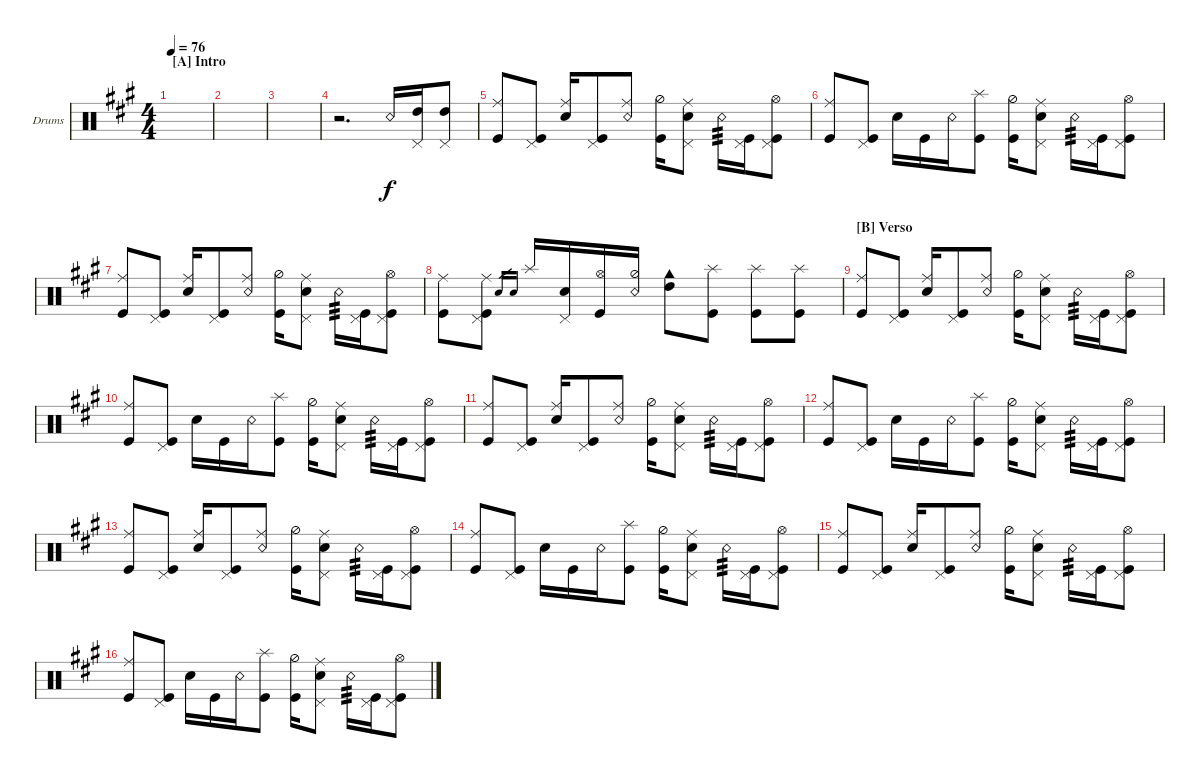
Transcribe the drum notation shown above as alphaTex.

\defaultSystemsLayout 4
\bracketExtendMode groupsimilarinstruments
\firstSystemTrackNameOrientation horizontal
\otherSystemsTrackNameOrientation horizontal
\track ("Drums" "Drums") {instrument percussion}
\staff {score}
\articulation defaults
\ts (4 4)
\section ("A" "Intro")
\tempo 76
\clef neutral
\ks a
|
|
|
r.2{d} "Snare (rim shot)".16 ("High Tom (hit)" "Pedal Hi-Hat (hit)").16 ("High Tom (hit)" "Pedal Hi-Hat (hit)").8 |
("Kick (hit)" "Ride (middle)").8 ("Kick (hit)" "Pedal Hi-Hat (hit)").8 ("Snare (hit) 2" "Ride (middle)").16 ("Kick (hit)" "Pedal Hi-Hat (hit)").8 ("Snare (rim shot)" "Ride (middle)").8 ("Kick (hit)" "Hi-Hat (half)").16 ("Snare (hit) 2" "Ride (middle)" "Pedal Hi-Hat (hit)").8 "Snare (rim shot)".16{tp 3} ("Kick (hit)" "Pedal Hi-Hat (hit)").16 ("Kick (hit)" "Pedal Hi-Hat (hit)" "Hi-Hat (open)").8 |
("Kick (hit)" "Ride (middle)").8 ("Kick (hit)" "Pedal Hi-Hat (hit)").8 "Snare (hit) 2".16 "Kick (hit)".16 "Snare (rim shot)".16 ("Splash (hit)" "Kick (hit)").8 ("Kick (hit)" "Hi-Hat (half)").16 ("Snare (hit) 2" "Ride (middle)" "Pedal Hi-Hat (hit)").8 "Snare (rim shot)".16{tp 3} ("Kick (hit)" "Pedal Hi-Hat (hit)").16 ("Kick (hit)" "Pedal Hi-Hat (hit)" "Hi-Hat (open)").8 |
("Kick (hit)" "Ride (middle)").8 ("Kick (hit)" "Pedal Hi-Hat (hit)").8 ("Snare (hit) 2" "Ride (middle)").16 ("Kick (hit)" "Pedal Hi-Hat (hit)").8 ("Snare (rim shot)" "Ride (middle)").8 ("Kick (hit)" "Hi-Hat (half)").16 ("Snare (hit) 2" "Ride (middle)" "Pedal Hi-Hat (hit)").8 "Snare (rim shot)".16{tp 3} ("Kick (hit)" "Pedal Hi-Hat (hit)").16 ("Kick (hit)" "Pedal Hi-Hat (hit)" "Hi-Hat (open)").8 |
("Kick (hit)" "Ride (middle)").8 ("Kick (hit)" "Pedal Hi-Hat (hit)" "Ride (middle)").8 "Snare (hit) 2".16{gr} "Snare (hit) 2".16{gr} "Splash (hit)".16{beam invert} ("Snare (hit) 2" "Pedal Hi-Hat (hit)").16 ("Kick (hit)" "Hi-Hat (open)").16 ("Snare (rim shot)" "Hi-Hat (half)").16 ("High Tom (hit)" "Cowbell high (hit)").8 ("Kick (hit)" "Splash (hit)").8 ("Splash (hit)" "Kick (hit)").8 ("Kick (hit)" "Splash (hit)").8 |
\section ("B" "Verso")
("Kick (hit)" "Ride (middle)").8 ("Kick (hit)" "Pedal Hi-Hat (hit)").8 ("Snare (hit) 2" "Ride (middle)").16 ("Kick (hit)" "Pedal Hi-Hat (hit)").8 ("Snare (rim shot)" "Ride (middle)").8 ("Kick (hit)" "Hi-Hat (half)").16 ("Snare (hit) 2" "Ride (middle)" "Pedal Hi-Hat (hit)").8 "Snare (rim shot)".16{tp 3} ("Kick (hit)" "Pedal Hi-Hat (hit)").16 ("Kick (hit)" "Pedal Hi-Hat (hit)" "Hi-Hat (open)").8 |
("Kick (hit)" "Ride (middle)").8 ("Kick (hit)" "Pedal Hi-Hat (hit)").8 "Snare (hit) 2".16 "Kick (hit)".16 "Snare (rim shot)".16 ("Splash (hit)" "Kick (hit)").8 ("Kick (hit)" "Hi-Hat (half)").16 ("Snare (hit) 2" "Ride (middle)" "Pedal Hi-Hat (hit)").8 "Snare (rim shot)".16{tp 3} ("Kick (hit)" "Pedal Hi-Hat (hit)").16 ("Kick (hit)" "Pedal Hi-Hat (hit)" "Hi-Hat (open)").8 |
("Kick (hit)" "Ride (middle)").8 ("Kick (hit)" "Pedal Hi-Hat (hit)").8 ("Snare (hit) 2" "Ride (middle)").16 ("Kick (hit)" "Pedal Hi-Hat (hit)").8 ("Snare (rim shot)" "Ride (middle)").8 ("Kick (hit)" "Hi-Hat (half)").16 ("Snare (hit) 2" "Ride (middle)" "Pedal Hi-Hat (hit)").8 "Snare (rim shot)".16{tp 3} ("Kick (hit)" "Pedal Hi-Hat (hit)").16 ("Kick (hit)" "Pedal Hi-Hat (hit)" "Hi-Hat (open)").8 |
("Kick (hit)" "Ride (middle)").8 ("Kick (hit)" "Pedal Hi-Hat (hit)").8 "Snare (hit) 2".16 "Kick (hit)".16 "Snare (rim shot)".16 ("Splash (hit)" "Kick (hit)").8 ("Kick (hit)" "Hi-Hat (half)").16 ("Snare (hit) 2" "Ride (middle)" "Pedal Hi-Hat (hit)").8 "Snare (rim shot)".16{tp 3} ("Kick (hit)" "Pedal Hi-Hat (hit)").16 ("Kick (hit)" "Pedal Hi-Hat (hit)" "Hi-Hat (open)").8 |
("Kick (hit)" "Ride (middle)").8 ("Kick (hit)" "Pedal Hi-Hat (hit)").8 ("Snare (hit) 2" "Ride (middle)").16 ("Kick (hit)" "Pedal Hi-Hat (hit)").8 ("Snare (rim shot)" "Ride (middle)").8 ("Kick (hit)" "Hi-Hat (half)").16 ("Snare (hit) 2" "Ride (middle)" "Pedal Hi-Hat (hit)").8 "Snare (rim shot)".16{tp 3} ("Kick (hit)" "Pedal Hi-Hat (hit)").16 ("Kick (hit)" "Pedal Hi-Hat (hit)" "Hi-Hat (open)").8 |
("Kick (hit)" "Ride (middle)").8 ("Kick (hit)" "Pedal Hi-Hat (hit)").8 "Snare (hit) 2".16 "Kick (hit)".16 "Snare (rim shot)".16 ("Splash (hit)" "Kick (hit)").8 ("Kick (hit)" "Hi-Hat (half)").16 ("Snare (hit) 2" "Ride (middle)" "Pedal Hi-Hat (hit)").8 "Snare (rim shot)".16{tp 3} ("Kick (hit)" "Pedal Hi-Hat (hit)").16 ("Kick (hit)" "Pedal Hi-Hat (hit)" "Hi-Hat (open)").8 |
("Kick (hit)" "Ride (middle)").8 ("Kick (hit)" "Pedal Hi-Hat (hit)").8 ("Snare (hit) 2" "Ride (middle)").16 ("Kick (hit)" "Pedal Hi-Hat (hit)").8 ("Snare (rim shot)" "Ride (middle)").8 ("Kick (hit)" "Hi-Hat (half)").16 ("Snare (hit) 2" "Ride (middle)" "Pedal Hi-Hat (hit)").8 "Snare (rim shot)".16{tp 3} ("Kick (hit)" "Pedal Hi-Hat (hit)").16 ("Kick (hit)" "Pedal Hi-Hat (hit)" "Hi-Hat (open)").8 |
("Kick (hit)" "Ride (middle)").8 ("Kick (hit)" "Pedal Hi-Hat (hit)").8 "Snare (hit) 2".16 "Kick (hit)".16 "Snare (rim shot)".16 ("Splash (hit)" "Kick (hit)").8 ("Kick (hit)" "Hi-Hat (half)").16 ("Snare (hit) 2" "Ride (middle)" "Pedal Hi-Hat (hit)").8 "Snare (rim shot)".16{tp 3} ("Kick (hit)" "Pedal Hi-Hat (hit)").16 ("Kick (hit)" "Pedal Hi-Hat (hit)" "Hi-Hat (open)").8
